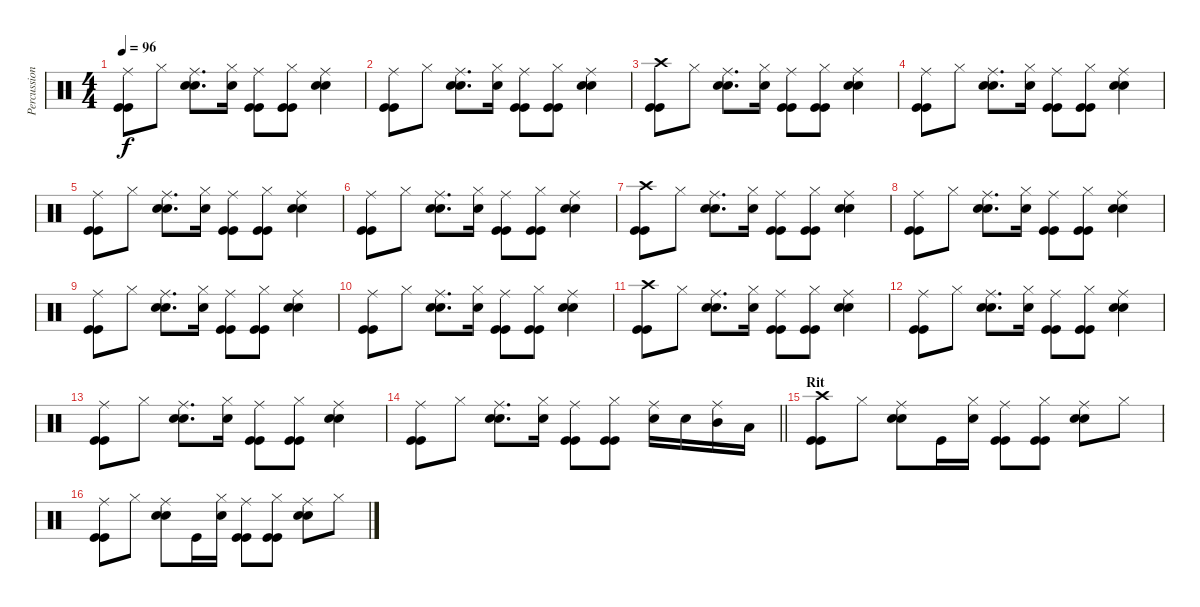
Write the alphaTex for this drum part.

\track ("Percussioni" "Percussion") {instrument percussion}
\staff {score}
\articulation defaults
\ts (4 4)
\tempo 96
\clef neutral
\ks c
("Ride (middle)" "Kick (hit)" "Kick (hit)").8{dy f} "Hi-Hat (closed)".8 ("Ride (middle)" "Snare (hit) 2" "Snare (hit) 2").8{d} ("Hi-Hat (closed)" "Snare (hit) 2").16 ("Ride (middle)" "Kick (hit)" "Kick (hit)").8 ("Hi-Hat (closed)" "Kick (hit)" "Kick (hit)").8 ("Ride (middle)" "Snare (hit) 2" "Snare (hit) 2").4 |
("Ride (middle)" "Kick (hit)" "Kick (hit)").8 "Hi-Hat (closed)".8 ("Ride (middle)" "Snare (hit) 2" "Snare (hit) 2").8{d} ("Hi-Hat (closed)" "Snare (hit) 2").16 ("Ride (middle)" "Kick (hit)" "Kick (hit)").8 ("Hi-Hat (closed)" "Kick (hit)" "Kick (hit)").8 ("Ride (middle)" "Snare (hit) 2" "Snare (hit) 2").4 |
("Crash high (hit)" "Kick (hit)" "Kick (hit)").8 "Hi-Hat (closed)".8 ("Ride (middle)" "Snare (hit) 2" "Snare (hit) 2").8{d} ("Hi-Hat (closed)" "Snare (hit) 2").16 ("Ride (middle)" "Kick (hit)" "Kick (hit)").8 ("Hi-Hat (closed)" "Kick (hit)" "Kick (hit)").8 ("Ride (middle)" "Snare (hit) 2" "Snare (hit) 2").4 |
("Ride (middle)" "Kick (hit)" "Kick (hit)").8 "Hi-Hat (closed)".8 ("Ride (middle)" "Snare (hit) 2" "Snare (hit) 2").8{d} ("Hi-Hat (closed)" "Snare (hit) 2").16 ("Ride (middle)" "Kick (hit)" "Kick (hit)").8 ("Hi-Hat (closed)" "Kick (hit)" "Kick (hit)").8 ("Ride (middle)" "Snare (hit) 2" "Snare (hit) 2").4 |
("Ride (middle)" "Kick (hit)" "Kick (hit)").8 "Hi-Hat (closed)".8 ("Ride (middle)" "Snare (hit) 2" "Snare (hit) 2").8{d} ("Hi-Hat (closed)" "Snare (hit) 2").16 ("Ride (middle)" "Kick (hit)" "Kick (hit)").8 ("Hi-Hat (closed)" "Kick (hit)" "Kick (hit)").8 ("Ride (middle)" "Snare (hit) 2" "Snare (hit) 2").4 |
("Ride (middle)" "Kick (hit)" "Kick (hit)").8 "Hi-Hat (closed)".8 ("Ride (middle)" "Snare (hit) 2" "Snare (hit) 2").8{d} ("Hi-Hat (closed)" "Snare (hit) 2").16 ("Ride (middle)" "Kick (hit)" "Kick (hit)").8 ("Hi-Hat (closed)" "Kick (hit)" "Kick (hit)").8 ("Ride (middle)" "Snare (hit) 2" "Snare (hit) 2").4 |
("Crash high (hit)" "Kick (hit)" "Kick (hit)").8 "Hi-Hat (closed)".8 ("Ride (middle)" "Snare (hit) 2" "Snare (hit) 2").8{d} ("Hi-Hat (closed)" "Snare (hit) 2").16 ("Ride (middle)" "Kick (hit)" "Kick (hit)").8 ("Hi-Hat (closed)" "Kick (hit)" "Kick (hit)").8 ("Ride (middle)" "Snare (hit) 2" "Snare (hit) 2").4 |
("Ride (middle)" "Kick (hit)" "Kick (hit)").8 "Hi-Hat (closed)".8 ("Ride (middle)" "Snare (hit) 2" "Snare (hit) 2").8{d} ("Hi-Hat (closed)" "Snare (hit) 2").16 ("Ride (middle)" "Kick (hit)" "Kick (hit)").8 ("Hi-Hat (closed)" "Kick (hit)" "Kick (hit)").8 ("Ride (middle)" "Snare (hit) 2" "Snare (hit) 2").4 |
("Ride (middle)" "Kick (hit)" "Kick (hit)").8 "Hi-Hat (closed)".8 ("Ride (middle)" "Snare (hit) 2" "Snare (hit) 2").8{d} ("Hi-Hat (closed)" "Snare (hit) 2").16 ("Ride (middle)" "Kick (hit)" "Kick (hit)").8 ("Hi-Hat (closed)" "Kick (hit)" "Kick (hit)").8 ("Ride (middle)" "Snare (hit) 2" "Snare (hit) 2").4 |
("Ride (middle)" "Kick (hit)" "Kick (hit)").8 "Hi-Hat (closed)".8 ("Ride (middle)" "Snare (hit) 2" "Snare (hit) 2").8{d} ("Hi-Hat (closed)" "Snare (hit) 2").16 ("Ride (middle)" "Kick (hit)" "Kick (hit)").8 ("Hi-Hat (closed)" "Kick (hit)" "Kick (hit)").8 ("Ride (middle)" "Snare (hit) 2" "Snare (hit) 2").4 |
("Crash high (hit)" "Kick (hit)" "Kick (hit)").8 "Hi-Hat (closed)".8 ("Ride (middle)" "Snare (hit) 2" "Snare (hit) 2").8{d} ("Hi-Hat (closed)" "Snare (hit) 2").16 ("Ride (middle)" "Kick (hit)" "Kick (hit)").8 ("Hi-Hat (closed)" "Kick (hit)" "Kick (hit)").8 ("Ride (middle)" "Snare (hit) 2" "Snare (hit) 2").4 |
("Ride (middle)" "Kick (hit)" "Kick (hit)").8 "Hi-Hat (closed)".8 ("Ride (middle)" "Snare (hit) 2" "Snare (hit) 2").8{d} ("Hi-Hat (closed)" "Snare (hit) 2").16 ("Ride (middle)" "Kick (hit)" "Kick (hit)").8 ("Hi-Hat (closed)" "Kick (hit)" "Kick (hit)").8 ("Ride (middle)" "Snare (hit) 2" "Snare (hit) 2").4 |
("Ride (middle)" "Kick (hit)" "Kick (hit)").8 "Hi-Hat (closed)".8 ("Ride (middle)" "Snare (hit) 2" "Snare (hit) 2").8{d} ("Hi-Hat (closed)" "Snare (hit) 2").16 ("Ride (middle)" "Kick (hit)" "Kick (hit)").8 ("Hi-Hat (closed)" "Kick (hit)" "Kick (hit)").8 ("Ride (middle)" "Snare (hit) 2" "Snare (hit) 2").4 |
\barLineRight lightlight
("Ride (middle)" "Kick (hit)" "Kick (hit)").8 "Hi-Hat (closed)".8 ("Ride (middle)" "Snare (hit) 2" "Snare (hit) 2").8{d} ("Hi-Hat (closed)" "Snare (hit) 2").16 ("Ride (middle)" "Kick (hit)" "Kick (hit)").8 ("Hi-Hat (closed)" "Kick (hit)" "Kick (hit)").8 ("Ride (middle)" "Snare (hit) 2").16 "Snare (hit) 2".16 ("Ride (middle)" "Mid Tom (hit)").16 "Low Tom (hit)".16 |
\section ("" "Rit")
("Crash high (hit)" "Kick (hit)" "Kick (hit)").8 "Hi-Hat (closed)".8 ("Ride (middle)" "Snare (hit) 2" "Snare (hit) 2").8 "Kick (hit)".16 ("Hi-Hat (closed)" "Snare (hit) 2").16 ("Ride (middle)" "Kick (hit)" "Kick (hit)").8 ("Hi-Hat (closed)" "Kick (hit)" "Kick (hit)").8 ("Ride (middle)" "Snare (hit) 2" "Snare (hit) 2").8 "Hi-Hat (closed)".8 |
("Ride (middle)" "Kick (hit)" "Kick (hit)").8 "Hi-Hat (closed)".8 ("Ride (middle)" "Snare (hit) 2" "Snare (hit) 2").8 "Kick (hit)".16 ("Hi-Hat (closed)" "Snare (hit) 2").16 ("Ride (middle)" "Kick (hit)" "Kick (hit)").8 ("Hi-Hat (closed)" "Kick (hit)" "Kick (hit)").8 ("Ride (middle)" "Snare (hit) 2" "Snare (hit) 2").8 "Hi-Hat (closed)".8
